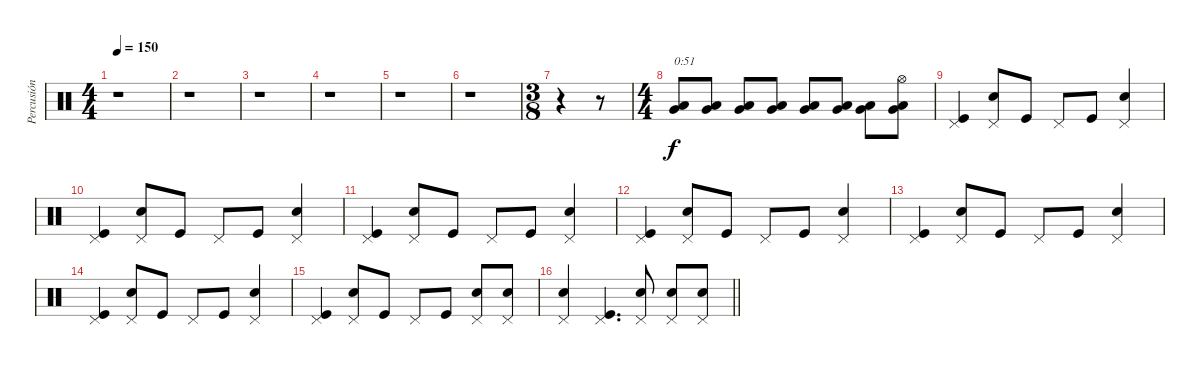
\track ("Percusión" "Percusión") {instrument percussion}
\staff {score}
\articulation defaults
\ts (4 4)
\tempo 150
\clef neutral
\ks c
r.1{dy f} |
r.1 |
r.1 |
r.1 |
r.1 |
r.1 |
\ts (3 8)
r.4 r.8 |
\ts (4 4)
("Very Low Tom (hit)" "Low Floor Tom (hit)").8{txt "0:51"} ("Very Low Tom (hit)" "Low Floor Tom (hit)").8 ("Very Low Tom (hit)" "Low Floor Tom (hit)").8 ("Very Low Tom (hit)" "Low Floor Tom (hit)").8 ("Very Low Tom (hit)" "Low Floor Tom (hit)").8 ("Very Low Tom (hit)" "Low Floor Tom (hit)").8 ("Very Low Tom (hit)" "Low Floor Tom (hit)").8 ("Very Low Tom (hit)" "Low Floor Tom (hit)" "Hi-Hat (open)").8 |
("Kick (hit)" "Pedal Hi-Hat (hit)").4 ("Snare (hit) 2" "Pedal Hi-Hat (hit)").8 "Kick (hit)".8 "Pedal Hi-Hat (hit)".8 "Kick (hit)".8 ("Snare (hit) 2" "Pedal Hi-Hat (hit)").4 |
("Kick (hit)" "Pedal Hi-Hat (hit)").4 ("Snare (hit) 2" "Pedal Hi-Hat (hit)").8 "Kick (hit)".8 "Pedal Hi-Hat (hit)".8 "Kick (hit)".8 ("Snare (hit) 2" "Pedal Hi-Hat (hit)").4 |
("Kick (hit)" "Pedal Hi-Hat (hit)").4 ("Snare (hit) 2" "Pedal Hi-Hat (hit)").8 "Kick (hit)".8 "Pedal Hi-Hat (hit)".8 "Kick (hit)".8 ("Snare (hit) 2" "Pedal Hi-Hat (hit)").4 |
("Kick (hit)" "Pedal Hi-Hat (hit)").4 ("Snare (hit) 2" "Pedal Hi-Hat (hit)").8 "Kick (hit)".8 "Pedal Hi-Hat (hit)".8 "Kick (hit)".8 ("Snare (hit) 2" "Pedal Hi-Hat (hit)").4 |
("Kick (hit)" "Pedal Hi-Hat (hit)").4 ("Snare (hit) 2" "Pedal Hi-Hat (hit)").8 "Kick (hit)".8 "Pedal Hi-Hat (hit)".8 "Kick (hit)".8 ("Snare (hit) 2" "Pedal Hi-Hat (hit)").4 |
("Kick (hit)" "Pedal Hi-Hat (hit)").4 ("Snare (hit) 2" "Pedal Hi-Hat (hit)").8 "Kick (hit)".8 "Pedal Hi-Hat (hit)".8 "Kick (hit)".8 ("Snare (hit) 2" "Pedal Hi-Hat (hit)").4 |
("Kick (hit)" "Pedal Hi-Hat (hit)").4 ("Snare (hit) 2" "Pedal Hi-Hat (hit)").8 "Kick (hit)".8 "Pedal Hi-Hat (hit)".8 "Kick (hit)".8 ("Snare (hit) 2" "Pedal Hi-Hat (hit)").8 ("Snare (hit) 2" "Pedal Hi-Hat (hit)").8 |
\barLineRight lightlight
("Snare (hit) 2" "Pedal Hi-Hat (hit)").4 ("Kick (hit)" "Pedal Hi-Hat (hit)").4{d} ("Snare (hit) 2" "Pedal Hi-Hat (hit)").8 ("Snare (hit) 2" "Pedal Hi-Hat (hit)").8 ("Snare (hit) 2" "Pedal Hi-Hat (hit)").8
